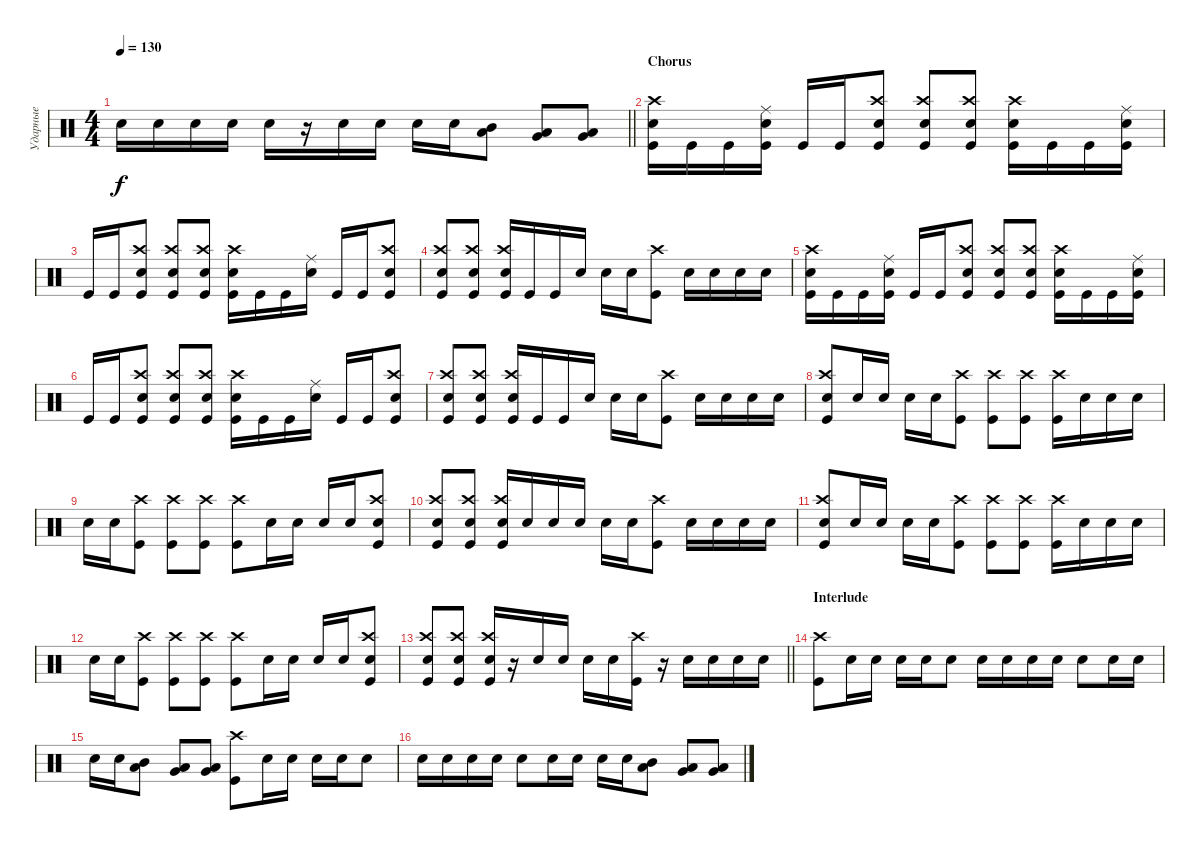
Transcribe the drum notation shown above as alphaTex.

\track ("Ударные" "Ударные") {instrument percussion}
\staff {score}
\articulation defaults
\ts (4 4)
\tempo 130
\clef neutral
\barLineRight lightlight
\ks c "Snare (hit) 2".16{dy f} "Snare (hit) 2".16 "Snare (hit) 2".16 "Snare (hit) 2".16 "Snare (hit) 2".16
r.16 "Snare (hit) 2".16 "Snare (hit) 2".16 "Snare (hit) 2".16 "Snare (hit) 2".16 ("Mid Tom (hit)" "Low Tom (hit)").8 ("Low Tom (hit)" "Very Low Tom (hit)").8 ("Very Low Tom (hit)" "Low Floor Tom (hit)").8 |
\section ("" "Chorus")
("Crash high (hit)" "Snare (hit) 2" "Kick (hit)").16 "Kick (hit)".16 "Kick (hit)".16 ("Ride (middle)" "Snare (hit) 2" "Kick (hit)").16 "Kick (hit)".16 "Kick (hit)".16 ("Crash high (hit)" "Snare (hit) 2" "Kick (hit)").8 ("Snare (hit) 2" "Crash high (hit)" "Kick (hit)").8 ("Snare (hit) 2" "Crash high (hit)" "Kick (hit)").8 ("Crash high (hit)" "Snare (hit) 2" "Kick (hit)").16 "Kick (hit)".16 "Kick (hit)".16 ("Ride (middle)" "Snare (hit) 2" "Kick (hit)").16 |
"Kick (hit)".16 "Kick (hit)".16 ("Crash high (hit)" "Snare (hit) 2" "Kick (hit)").8 ("Crash high (hit)" "Snare (hit) 2" "Kick (hit)").8 ("Crash high (hit)" "Snare (hit) 2" "Kick (hit)").8 ("Crash high (hit)" "Snare (hit) 2" "Kick (hit)").16 "Kick (hit)".16 "Kick (hit)".16 ("Ride (middle)" "Snare (hit) 2").16 "Kick (hit)".16 "Kick (hit)".16 ("Snare (hit) 2" "Crash high (hit)" "Kick (hit)").8 |
("Snare (hit) 2" "Crash high (hit)" "Kick (hit)").8 ("Snare (hit) 2" "Crash high (hit)" "Kick (hit)").8 ("Snare (hit) 2" "Crash high (hit)" "Kick (hit)").16 "Kick (hit)".16 "Kick (hit)".16 "Snare (hit) 2".16 "Snare (hit) 2".16 "Snare (hit) 2".16 ("Crash high (hit)" "Kick (hit)").8 "Snare (hit) 2".16 "Snare (hit) 2".16 "Snare (hit) 2".16 "Snare (hit) 2".16 |
("Crash high (hit)" "Snare (hit) 2" "Kick (hit)").16 "Kick (hit)".16 "Kick (hit)".16 ("Ride (middle)" "Snare (hit) 2" "Kick (hit)").16 "Kick (hit)".16 "Kick (hit)".16 ("Crash high (hit)" "Snare (hit) 2" "Kick (hit)").8 ("Snare (hit) 2" "Crash high (hit)" "Kick (hit)").8 ("Snare (hit) 2" "Crash high (hit)" "Kick (hit)").8 ("Crash high (hit)" "Snare (hit) 2" "Kick (hit)").16 "Kick (hit)".16 "Kick (hit)".16 ("Ride (middle)" "Snare (hit) 2" "Kick (hit)").16 |
"Kick (hit)".16 "Kick (hit)".16 ("Crash high (hit)" "Snare (hit) 2" "Kick (hit)").8 ("Crash high (hit)" "Snare (hit) 2" "Kick (hit)").8 ("Crash high (hit)" "Snare (hit) 2" "Kick (hit)").8 ("Crash high (hit)" "Snare (hit) 2" "Kick (hit)").16 "Kick (hit)".16 "Kick (hit)".16 ("Ride (middle)" "Snare (hit) 2").16 "Kick (hit)".16 "Kick (hit)".16 ("Snare (hit) 2" "Crash high (hit)" "Kick (hit)").8 |
("Snare (hit) 2" "Crash high (hit)" "Kick (hit)").8 ("Snare (hit) 2" "Crash high (hit)" "Kick (hit)").8 ("Snare (hit) 2" "Crash high (hit)" "Kick (hit)").16 "Kick (hit)".16 "Kick (hit)".16 "Snare (hit) 2".16 "Snare (hit) 2".16 "Snare (hit) 2".16 ("Crash high (hit)" "Kick (hit)").8 "Snare (hit) 2".16 "Snare (hit) 2".16 "Snare (hit) 2".16 "Snare (hit) 2".16 |
("Crash high (hit)" "Snare (hit) 2" "Kick (hit)").8 "Snare (hit) 2".16 "Snare (hit) 2".16 "Snare (hit) 2".16 "Snare (hit) 2".16 ("Crash high (hit)" "Kick (hit)").8 ("Crash high (hit)" "Kick (hit)").8 ("Crash high (hit)" "Kick (hit)").8 ("Crash high (hit)" "Kick (hit)").16 "Snare (hit) 2".16 "Snare (hit) 2".16 "Snare (hit) 2".16 |
"Snare (hit) 2".16 "Snare (hit) 2".16 ("Crash high (hit)" "Kick (hit)").8 ("Crash high (hit)" "Kick (hit)").8 ("Crash high (hit)" "Kick (hit)").8 ("Crash high (hit)" "Kick (hit)").8 "Snare (hit) 2".16 "Snare (hit) 2".16 "Snare (hit) 2".16 "Snare (hit) 2".16 ("Snare (hit) 2" "Crash high (hit)" "Kick (hit)").8 |
("Snare (hit) 2" "Crash high (hit)" "Kick (hit)").8 ("Snare (hit) 2" "Crash high (hit)" "Kick (hit)").8 ("Snare (hit) 2" "Crash high (hit)" "Kick (hit)").16 "Snare (hit) 2".16 "Snare (hit) 2".16 "Snare (hit) 2".16 "Snare (hit) 2".16 "Snare (hit) 2".16 ("Crash high (hit)" "Kick (hit)").8 "Snare (hit) 2".16 "Snare (hit) 2".16 "Snare (hit) 2".16 "Snare (hit) 2".16 |
("Crash high (hit)" "Snare (hit) 2" "Kick (hit)").8 "Snare (hit) 2".16 "Snare (hit) 2".16 "Snare (hit) 2".16 "Snare (hit) 2".16 ("Crash high (hit)" "Kick (hit)").8 ("Crash high (hit)" "Kick (hit)").8 ("Crash high (hit)" "Kick (hit)").8 ("Crash high (hit)" "Kick (hit)").16 "Snare (hit) 2".16 "Snare (hit) 2".16 "Snare (hit) 2".16 |
"Snare (hit) 2".16 "Snare (hit) 2".16 ("Crash high (hit)" "Kick (hit)").8 ("Crash high (hit)" "Kick (hit)").8 ("Crash high (hit)" "Kick (hit)").8 ("Crash high (hit)" "Kick (hit)").8 "Snare (hit) 2".16 "Snare (hit) 2".16 "Snare (hit) 2".16 "Snare (hit) 2".16 ("Snare (hit) 2" "Crash high (hit)" "Kick (hit)").8 |
\barLineRight lightlight
("Snare (hit) 2" "Crash high (hit)" "Kick (hit)").8 ("Snare (hit) 2" "Crash high (hit)" "Kick (hit)").8 ("Snare (hit) 2" "Crash high (hit)" "Kick (hit)").16 r.16 "Snare (hit) 2".16 "Snare (hit) 2".16 "Snare (hit) 2".16 "Snare (hit) 2".16 ("Crash high (hit)" "Kick (hit)").16 r.16 "Snare (hit) 2".16 "Snare (hit) 2".16 "Snare (hit) 2".16 "Snare (hit) 2".16 |
\section ("" "Interlude")
("Crash high (hit)" "Kick (hit)").8 "Snare (hit) 2".16 "Snare (hit) 2".16 "Snare (hit) 2".16 "Snare (hit) 2".16 "Snare (hit) 2".8 "Snare (hit) 2".16 "Snare (hit) 2".16 "Snare (hit) 2".16 "Snare (hit) 2".16 "Snare (hit) 2".8 "Snare (hit) 2".16 "Snare (hit) 2".16 |
"Snare (hit) 2".16 "Snare (hit) 2".16 ("Mid Tom (hit)" "Low Tom (hit)").8 ("Low Tom (hit)" "Very Low Tom (hit)").8 ("Very Low Tom (hit)" "Low Floor Tom (hit)").8 ("Crash high (hit)" "Kick (hit)").8 "Snare (hit) 2".16 "Snare (hit) 2".16 "Snare (hit) 2".16 "Snare (hit) 2".16 "Snare (hit) 2".8 |
"Snare (hit) 2".16 "Snare (hit) 2".16 "Snare (hit) 2".16 "Snare (hit) 2".16 "Snare (hit) 2".8 "Snare (hit) 2".16 "Snare (hit) 2".16 "Snare (hit) 2".16 "Snare (hit) 2".16 ("Mid Tom (hit)" "Low Tom (hit)").8 ("Low Tom (hit)" "Very Low Tom (hit)").8 ("Very Low Tom (hit)" "Low Floor Tom (hit)").8
